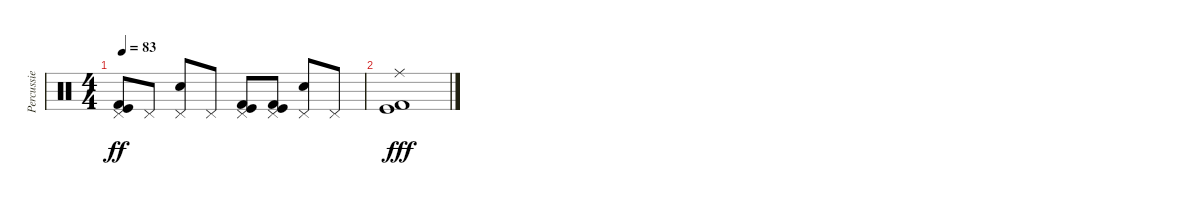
\track ("Percussie" "Percussie") {instrument percussion}
\staff {score}
\articulation defaults
\ts (4 4)
\tempo 83
\clef neutral
\ks c
("Pedal Hi-Hat (hit)" "Kick (hit)" "Kick (hit) 2").8{dy ff} "Pedal Hi-Hat (hit)".8 ("Pedal Hi-Hat (hit)" "Snare (hit) 2").8 "Pedal Hi-Hat (hit)".8 ("Pedal Hi-Hat (hit)" "Kick (hit)" "Kick (hit) 2").8 ("Pedal Hi-Hat (hit)" "Kick (hit)" "Kick (hit) 2").8 ("Pedal Hi-Hat (hit)" "Snare (hit) 2").8 "Pedal Hi-Hat (hit)".8 |
("Ride (middle)" "Kick (hit)" "Kick (hit) 2").1{dy fff}
